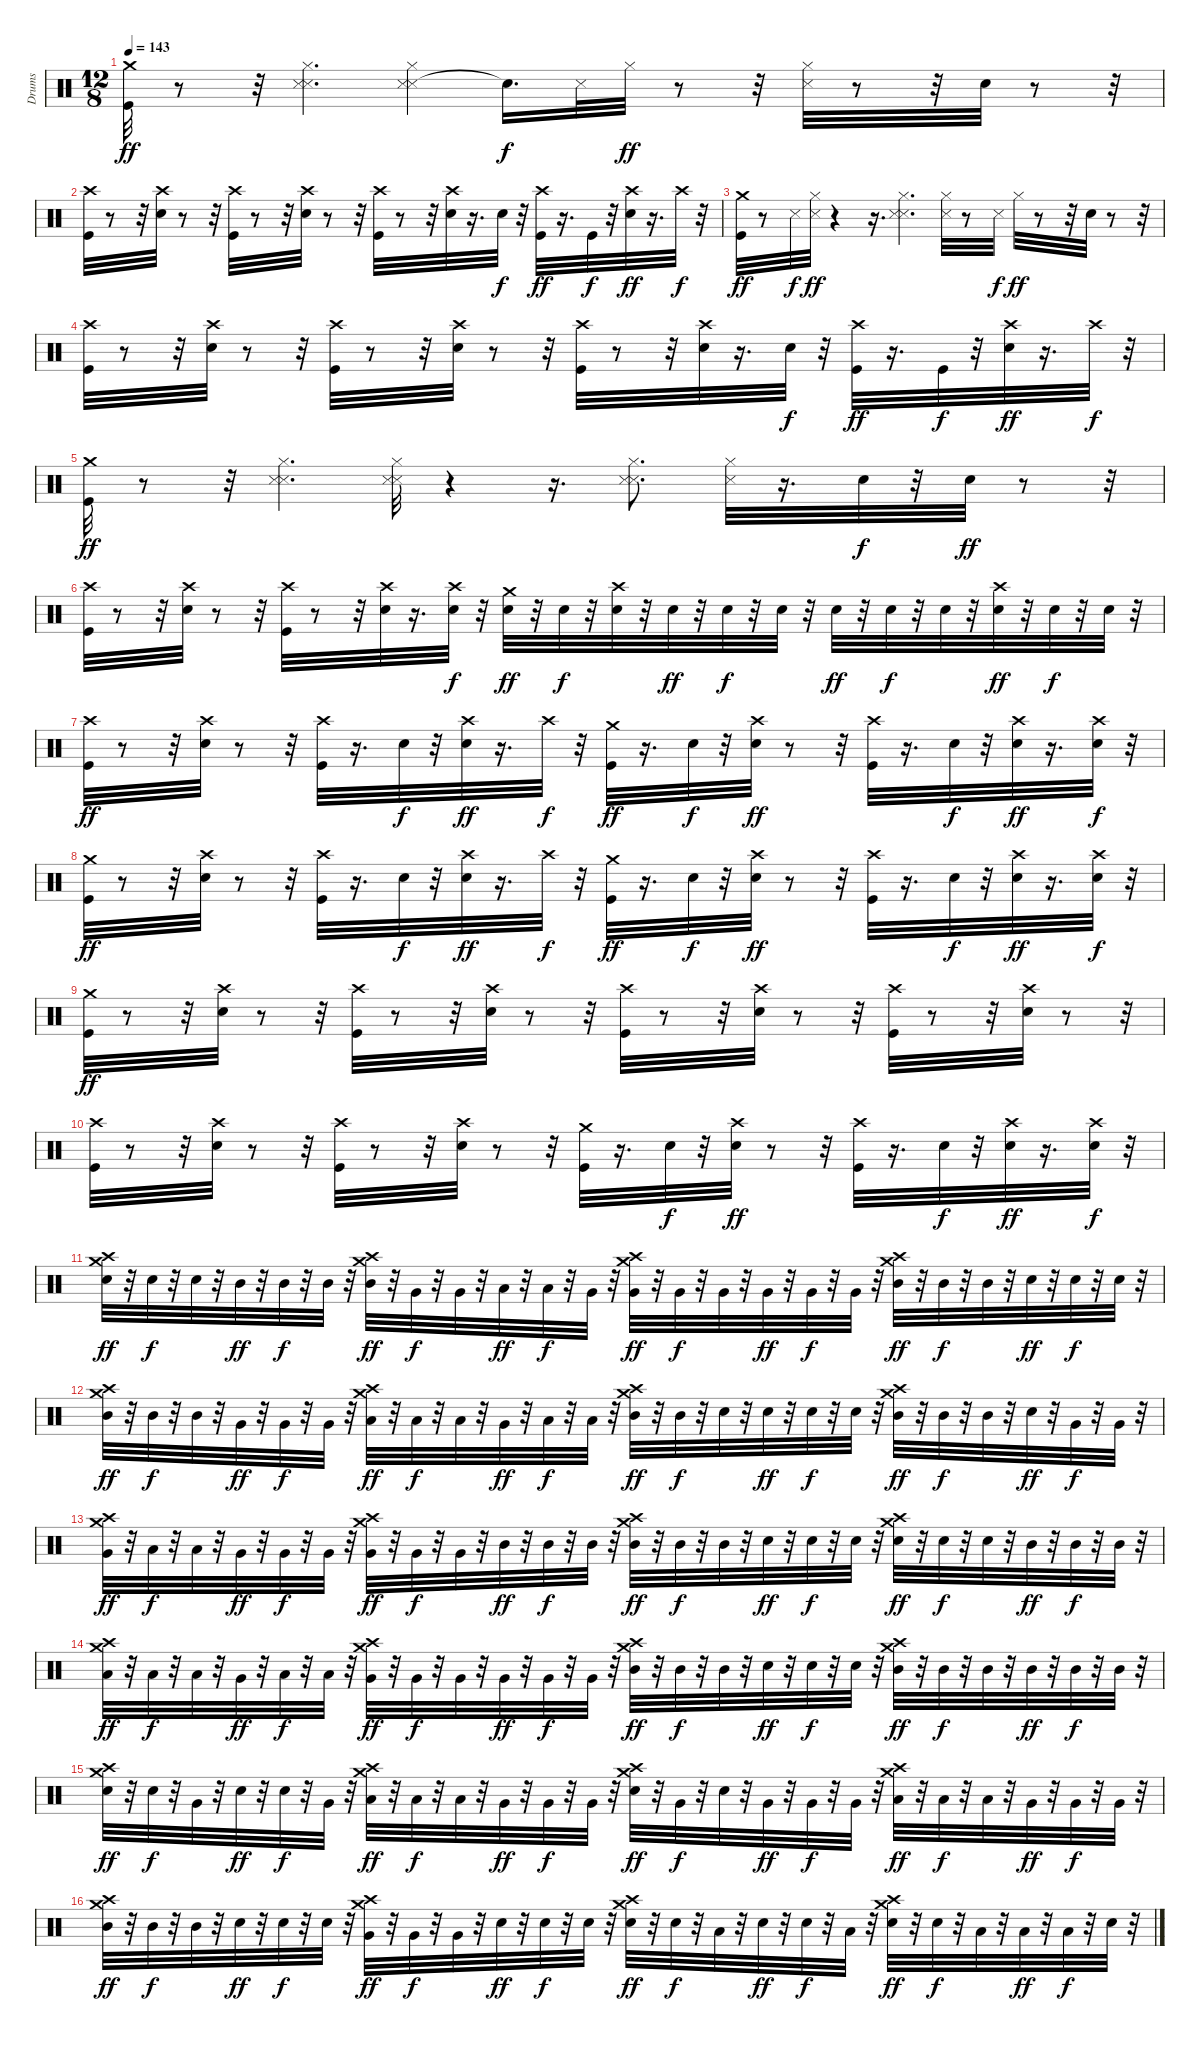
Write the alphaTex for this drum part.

\track ("Drums" "Drums") {instrument percussion}
\staff {score}
\articulation defaults
\ts (12 8)
\tempo 143
\clef neutral
\ks c
("Crash medium (hit)" "Kick (hit)").32{dy ff} r.8 r.32 ("Metronome (hit)" "Metronome (hit)" "Hi-Hat (closed)").4{d} ("Metronome (hit)" "Metronome (hit)" "Hi-Hat (closed)").4 "Snare (hit)"{t}.16{d dy f} "Metronome (hit)".32 "Hi-Hat (closed)".32{dy ff} r.8 r.32 ("Hi-Hat (closed)" "Metronome (hit)").32 r.8 r.32 "Snare (hit) 2".32 r.8 r.32 |
("Crash high (hit)" "Kick (hit)").32 r.8 r.32 ("Crash high (hit)" "Snare (hit) 2").32 r.8 r.32 ("Crash high (hit)" "Kick (hit)").32 r.8 r.32 ("Crash high (hit)" "Snare (hit) 2").32 r.8 r.32 ("Crash high (hit)" "Kick (hit)").32 r.8 r.32 ("Crash high (hit)" "Snare (hit) 2").32 r.16{d} "Snare (hit) 2".32{dy f} r.32 ("Crash high (hit)" "Kick (hit)").32{dy ff} r.16{d} "Kick (hit)".32{dy f} r.32 ("Crash high (hit)" "Snare (hit) 2").32{dy ff} r.16{d} "Crash high (hit)".32{dy f} r.32 |
("Kick (hit)" "Crash medium (hit)").32{dy ff} r.8 "Metronome (hit)".32{dy f} ("Metronome (hit)" "Hi-Hat (closed)").32{dy ff} r.4 r.16{d} ("Metronome (hit)" "Metronome (hit)" "Hi-Hat (closed)").4{d} ("Metronome (hit)" "Hi-Hat (closed)").32 r.8 "Metronome (hit)".32{dy f} "Hi-Hat (closed)".32{dy ff} r.8 r.32 "Snare (hit) 2".32 r.8 r.32 |
("Crash high (hit)" "Kick (hit)").32 r.8 r.32 ("Crash high (hit)" "Snare (hit) 2").32 r.8 r.32 ("Crash high (hit)" "Kick (hit)").32 r.8 r.32 ("Crash high (hit)" "Snare (hit) 2").32 r.8 r.32 ("Crash high (hit)" "Kick (hit)").32 r.8 r.32 ("Crash high (hit)" "Snare (hit) 2").32 r.16{d} "Snare (hit) 2".32{dy f} r.32 ("Crash high (hit)" "Kick (hit)").32{dy ff} r.16{d} "Kick (hit)".32{dy f} r.32 ("Crash high (hit)" "Snare (hit) 2").32{dy ff} r.16{d} "Crash high (hit)".32{dy f} r.32 |
("Kick (hit)" "Crash medium (hit)").32{dy ff} r.8 r.32 ("Metronome (hit)" "Metronome (hit)" "Hi-Hat (closed)").4{d} ("Metronome (hit)" "Hi-Hat (closed)" "Metronome (hit)").32 r.4 r.16{d} ("Metronome (hit)" "Metronome (hit)" "Hi-Hat (closed)").8{d} ("Hi-Hat (closed)" "Metronome (hit)").32 r.16{d} "Snare (hit) 2".32{dy f} r.32 "Snare (hit) 2".32{dy ff} r.8 r.32 |
("Crash high (hit)" "Kick (hit)").32 r.8 r.32 ("Crash high (hit)" "Snare (hit) 2").32 r.8 r.32 ("Crash high (hit)" "Kick (hit)").32 r.8 r.32 ("Crash high (hit)" "Snare (hit) 2").32 r.16{d} ("Electric Snare (hit)" "Crash high (hit)").32{dy f} r.32 ("Snare (hit) 2" "Crash medium (hit)").32{dy ff} r.32 "Snare (hit) 2".32{dy f} r.32 ("Crash high (hit)" "Snare (hit) 2").32 r.32 "Snare (hit) 2".32{dy ff} r.32 "Snare (hit) 2".32{dy f} r.32 "Snare (hit) 2".32 r.32 "Snare (hit) 2".32{dy ff} r.32 "Snare (hit) 2".32{dy f} r.32 "Snare (hit) 2".32 r.32 ("Crash high (hit)" "Snare (hit) 2").32{dy ff} r.32 "Snare (hit) 2".32{dy f} r.32 "Snare (hit) 2".32 r.32 |
("Crash high (hit)" "Kick (hit)").32{dy ff} r.8 r.32 ("Crash high (hit)" "Snare (hit) 2").32 r.8 r.32 ("Crash high (hit)" "Kick (hit)").32 r.16{d} "Electric Snare (hit)".32{dy f} r.32 ("Crash high (hit)" "Snare (hit) 2").32{dy ff} r.16{d} "Crash high (hit)".32{dy f} r.32 ("Crash medium (hit)" "Kick (hit)").32{dy ff} r.16{d} "Snare (hit) 2".32{dy f} r.32 ("Crash high (hit)" "Snare (hit) 2").32{dy ff} r.8 r.32 ("Crash high (hit)" "Kick (hit)").32 r.16{d} "Electric Snare (hit)".32{dy f} r.32 ("Crash high (hit)" "Snare (hit) 2").32{dy ff} r.16{d} ("Electric Snare (hit)" "Crash high (hit)").32{dy f} r.32 |
("Crash medium (hit)" "Kick (hit)").32{dy ff} r.8 r.32 ("Crash high (hit)" "Snare (hit) 2").32 r.8 r.32 ("Crash high (hit)" "Kick (hit)").32 r.16{d} "Electric Snare (hit)".32{dy f} r.32 ("Crash high (hit)" "Snare (hit) 2").32{dy ff} r.16{d} "Crash high (hit)".32{dy f} r.32 ("Crash medium (hit)" "Kick (hit)").32{dy ff} r.16{d} "Snare (hit) 2".32{dy f} r.32 ("Crash high (hit)" "Snare (hit) 2").32{dy ff} r.8 r.32 ("Crash high (hit)" "Kick (hit)").32 r.16{d} "Electric Snare (hit)".32{dy f} r.32 ("Crash high (hit)" "Snare (hit) 2").32{dy ff} r.16{d} ("Electric Snare (hit)" "Crash high (hit)").32{dy f} r.32 |
("Crash medium (hit)" "Kick (hit)").32{dy ff} r.8 r.32 ("Crash high (hit)" "Snare (hit) 2").32 r.8 r.32 ("Crash high (hit)" "Kick (hit)").32 r.8 r.32 ("Crash high (hit)" "Snare (hit) 2").32 r.8 r.32 ("Crash high (hit)" "Kick (hit)").32 r.8 r.32 ("Crash high (hit)" "Snare (hit) 2").32 r.8 r.32 ("Crash high (hit)" "Kick (hit)").32 r.8 r.32 ("Crash high (hit)" "Snare (hit) 2").32 r.8 r.32 |
("Crash high (hit)" "Kick (hit)").32 r.8 r.32 ("Crash high (hit)" "Snare (hit) 2").32 r.8 r.32 ("Crash high (hit)" "Kick (hit)").32 r.8 r.32 ("Crash high (hit)" "Snare (hit) 2").32 r.8 r.32 ("Crash medium (hit)" "Kick (hit)").32 r.16{d} "Snare (hit) 2".32{dy f} r.32 ("Crash high (hit)" "Snare (hit) 2").32{dy ff} r.8 r.32 ("Crash high (hit)" "Kick (hit)").32 r.16{d} "Electric Snare (hit)".32{dy f} r.32 ("Crash high (hit)" "Snare (hit) 2").32{dy ff} r.16{d} ("Electric Snare (hit)" "Crash high (hit)").32{dy f} r.32 |
("Snare (hit) 2" "Crash medium (hit)" "Crash high (hit)").32{dy ff} r.32 "Electric Snare (hit)".32{dy f} r.32 "Electric Snare (hit)".32 r.32 "Mid Tom (hit)".32{dy ff} r.32 "Mid Tom (hit)".32{dy f} r.32 "Mid Tom (hit)".32 r.32 ("Mid Tom (hit)" "Crash high (hit)" "Crash medium (hit)").32{dy ff} r.32 "Very Low Tom (hit)".32{dy f} r.32 "Very Low Tom (hit)".32 r.32 "Low Floor Tom (hit)".32{dy ff} r.32 "Low Floor Tom (hit)".32{dy f} r.32 "Very Low Tom (hit)".32 r.32 ("Very Low Tom (hit)" "Crash medium (hit)" "Crash high (hit)").32{dy ff} r.32 "Very Low Tom (hit)".32{dy f} r.32 "Very Low Tom (hit)".32 r.32 "Very Low Tom (hit)".32{dy ff} r.32 "Very Low Tom (hit)".32{dy f} r.32 "Very Low Tom (hit)".32 r.32 ("Mid Tom (hit)" "Crash high (hit)" "Crash medium (hit)").32{dy ff} r.32 "Mid Tom (hit)".32{dy f} r.32 "Mid Tom (hit)".32 r.32 "Electric Snare (hit)".32{dy ff} r.32 "Electric Snare (hit)".32{dy f} r.32 "Electric Snare (hit)".32 r.32 |
("Mid Tom (hit)" "Crash medium (hit)" "Crash high (hit)").32{dy ff} r.32 "Mid Tom (hit)".32{dy f} r.32 "Mid Tom (hit)".32 r.32 "Very Low Tom (hit)".32{dy ff} r.32 "Very Low Tom (hit)".32{dy f} r.32 "Very Low Tom (hit)".32 r.32 ("Low Floor Tom (hit)" "Crash high (hit)" "Crash medium (hit)").32{dy ff} r.32 "Low Floor Tom (hit)".32{dy f} r.32 "Low Floor Tom (hit)".32 r.32 "Very Low Tom (hit)".32{dy ff} r.32 "Low Floor Tom (hit)".32{dy f} r.32 "Low Floor Tom (hit)".32 r.32 ("Mid Tom (hit)" "Crash medium (hit)" "Crash high (hit)").32{dy ff} r.32 "Mid Tom (hit)".32{dy f} r.32 "Electric Snare (hit)".32 r.32 "Electric Snare (hit)".32{dy ff} r.32 "Electric Snare (hit)".32{dy f} r.32 "Electric Snare (hit)".32 r.32 ("Mid Tom (hit)" "Crash high (hit)" "Crash medium (hit)").32{dy ff} r.32 "Mid Tom (hit)".32{dy f} r.32 "Mid Tom (hit)".32 r.32 "Electric Snare (hit)".32{dy ff} r.32 "Very Low Tom (hit)".32{dy f} r.32 "Very Low Tom (hit)".32 r.32 |
("Very Low Tom (hit)" "Crash medium (hit)" "Crash high (hit)").32{dy ff} r.32 "Low Floor Tom (hit)".32{dy f} r.32 "Low Floor Tom (hit)".32 r.32 "Very Low Tom (hit)".32{dy ff} r.32 "Very Low Tom (hit)".32{dy f} r.32 "Very Low Tom (hit)".32 r.32 ("Very Low Tom (hit)" "Crash high (hit)" "Crash medium (hit)").32{dy ff} r.32 "Very Low Tom (hit)".32{dy f} r.32 "Very Low Tom (hit)".32 r.32 "Mid Tom (hit)".32{dy ff} r.32 "Mid Tom (hit)".32{dy f} r.32 "Mid Tom (hit)".32 r.32 ("Mid Tom (hit)" "Crash medium (hit)" "Crash high (hit)").32{dy ff} r.32 "Mid Tom (hit)".32{dy f} r.32 "Mid Tom (hit)".32 r.32 "Snare (hit) 2".32{dy ff} r.32 "Electric Snare (hit)".32{dy f} r.32 "Electric Snare (hit)".32 r.32 ("Electric Snare (hit)" "Crash high (hit)" "Crash medium (hit)").32{dy ff} r.32 "Electric Snare (hit)".32{dy f} r.32 "Electric Snare (hit)".32 r.32 "Mid Tom (hit)".32{dy ff} r.32 "Mid Tom (hit)".32{dy f} r.32 "Mid Tom (hit)".32 r.32 |
("Low Floor Tom (hit)" "Crash medium (hit)" "Crash high (hit)").32{dy ff} r.32 "Low Floor Tom (hit)".32{dy f} r.32 "Low Floor Tom (hit)".32 r.32 "Very Low Tom (hit)".32{dy ff} r.32 "Low Floor Tom (hit)".32{dy f} r.32 "Low Floor Tom (hit)".32 r.32 ("Very Low Tom (hit)" "Crash high (hit)" "Crash medium (hit)").32{dy ff} r.32 "Very Low Tom (hit)".32{dy f} r.32 "Very Low Tom (hit)".32 r.32 "Very Low Tom (hit)".32{dy ff} r.32 "Very Low Tom (hit)".32{dy f} r.32 "Very Low Tom (hit)".32 r.32 ("Mid Tom (hit)" "Crash medium (hit)" "Crash high (hit)").32{dy ff} r.32 "Mid Tom (hit)".32{dy f} r.32 "Mid Tom (hit)".32 r.32 "Snare (hit) 2".32{dy ff} r.32 "Snare (hit) 2".32{dy f} r.32 "Snare (hit) 2".32 r.32 ("Mid Tom (hit)" "Crash high (hit)" "Crash medium (hit)").32{dy ff} r.32 "Mid Tom (hit)".32{dy f} r.32 "Mid Tom (hit)".32 r.32 "Mid Tom (hit)".32{dy ff} r.32 "Mid Tom (hit)".32{dy f} r.32 "Mid Tom (hit)".32 r.32 |
("Electric Snare (hit)" "Crash medium (hit)" "Crash high (hit)").32{dy ff} r.32 "Electric Snare (hit)".32{dy f} r.32 "Very Low Tom (hit)".32 r.32 "Snare (hit) 2".32{dy ff} r.32 "Snare (hit) 2".32{dy f} r.32 "Very Low Tom (hit)".32 r.32 ("Low Floor Tom (hit)" "Crash high (hit)" "Crash medium (hit)").32{dy ff} r.32 "Low Floor Tom (hit)".32{dy f} r.32 "Low Floor Tom (hit)".32 r.32 "Very Low Tom (hit)".32{dy ff} r.32 "Very Low Tom (hit)".32{dy f} r.32 "Very Low Tom (hit)".32 r.32 ("Snare (hit) 2" "Crash medium (hit)" "Crash high (hit)").32{dy ff} r.32 "Very Low Tom (hit)".32{dy f} r.32 "Electric Snare (hit)".32 r.32 "Very Low Tom (hit)".32{dy ff} r.32 "Very Low Tom (hit)".32{dy f} r.32 "Very Low Tom (hit)".32 r.32 ("Low Floor Tom (hit)" "Crash high (hit)" "Crash medium (hit)").32{dy ff} r.32 "Low Floor Tom (hit)".32{dy f} r.32 "Low Floor Tom (hit)".32 r.32 "Very Low Tom (hit)".32{dy ff} r.32 "Very Low Tom (hit)".32{dy f} r.32 "Very Low Tom (hit)".32 r.32 |
("Mid Tom (hit)" "Crash medium (hit)" "Crash high (hit)").32{dy ff} r.32 "Mid Tom (hit)".32{dy f} r.32 "Mid Tom (hit)".32 r.32 "Snare (hit) 2".32{dy ff} r.32 "Snare (hit) 2".32{dy f} r.32 "Snare (hit) 2".32 r.32 ("Very Low Tom (hit)" "Crash high (hit)" "Crash medium (hit)").32{dy ff} r.32 "Very Low Tom (hit)".32{dy f} r.32 "Very Low Tom (hit)".32 r.32 "Snare (hit) 2".32{dy ff} r.32 "Snare (hit) 2".32{dy f} r.32 "Snare (hit) 2".32 r.32 ("Electric Snare (hit)" "Crash medium (hit)" "Crash high (hit)").32{dy ff} r.32 "Snare (hit) 2".32{dy f} r.32 "Low Floor Tom (hit)".32 r.32 "Snare (hit) 2".32{dy ff} r.32 "Snare (hit) 2".32{dy f} r.32 "Low Floor Tom (hit)".32 r.32 ("Snare (hit) 2" "Crash high (hit)" "Crash medium (hit)").32{dy ff} r.32 "Snare (hit) 2".32{dy f} r.32 "Low Floor Tom (hit)".32 r.32 "Low Floor Tom (hit)".32{dy ff} r.32 "Low Floor Tom (hit)".32{dy f} r.32 "Snare (hit) 2".32 r.32
